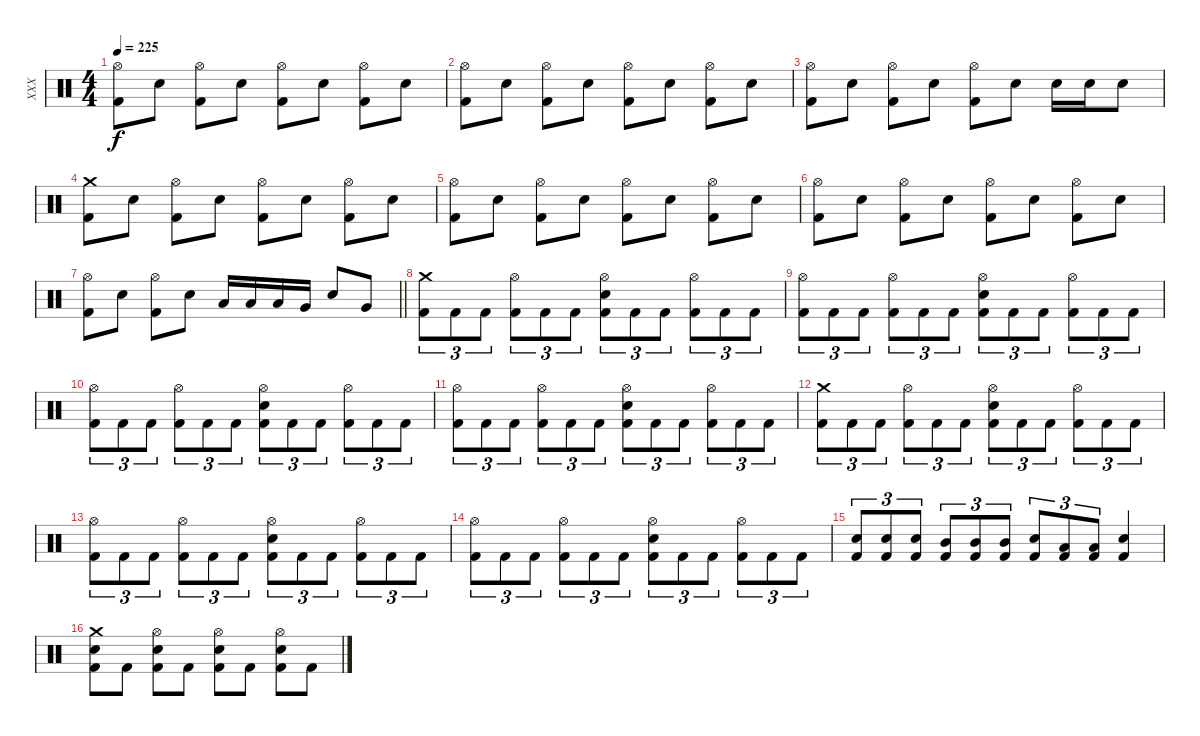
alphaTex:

\track ("XXX" "XXX") {instrument percussion}
\staff {score}
\articulation defaults
\ts (4 4)
\tempo 225
\clef neutral
\ks c
("Hi-Hat (open)" "Kick (hit) 2").8{dy f} "Electric Snare (hit)".8 ("Hi-Hat (open)" "Kick (hit) 2").8 "Electric Snare (hit)".8 ("Hi-Hat (open)" "Kick (hit) 2").8 "Electric Snare (hit)".8 ("Hi-Hat (open)" "Kick (hit) 2").8 "Electric Snare (hit)".8 |
("Hi-Hat (open)" "Kick (hit) 2").8 "Electric Snare (hit)".8 ("Hi-Hat (open)" "Kick (hit) 2").8 "Electric Snare (hit)".8 ("Hi-Hat (open)" "Kick (hit) 2").8 "Electric Snare (hit)".8 ("Hi-Hat (open)" "Kick (hit) 2").8 "Electric Snare (hit)".8 |
("Hi-Hat (open)" "Kick (hit) 2").8 "Electric Snare (hit)".8 ("Hi-Hat (open)" "Kick (hit) 2").8 "Electric Snare (hit)".8 ("Hi-Hat (open)" "Kick (hit) 2").8 "Electric Snare (hit)".8 "Electric Snare (hit)".16 "Electric Snare (hit)".16 "Electric Snare (hit)".8 |
("Crash medium (hit)" "Kick (hit) 2").8 "Electric Snare (hit)".8 ("Hi-Hat (open)" "Kick (hit) 2").8 "Electric Snare (hit)".8 ("Hi-Hat (open)" "Kick (hit) 2").8 "Electric Snare (hit)".8 ("Hi-Hat (open)" "Kick (hit) 2").8 "Electric Snare (hit)".8 |
("Hi-Hat (open)" "Kick (hit) 2").8 "Electric Snare (hit)".8 ("Hi-Hat (open)" "Kick (hit) 2").8 "Electric Snare (hit)".8 ("Hi-Hat (open)" "Kick (hit) 2").8 "Electric Snare (hit)".8 ("Hi-Hat (open)" "Kick (hit) 2").8 "Electric Snare (hit)".8 |
("Hi-Hat (open)" "Kick (hit) 2").8 "Electric Snare (hit)".8 ("Hi-Hat (open)" "Kick (hit) 2").8 "Electric Snare (hit)".8 ("Hi-Hat (open)" "Kick (hit) 2").8 "Electric Snare (hit)".8 ("Hi-Hat (open)" "Kick (hit) 2").8 "Electric Snare (hit)".8 |
\barLineRight lightlight
("Hi-Hat (open)" "Kick (hit) 2").8 "Electric Snare (hit)".8 ("Hi-Hat (open)" "Kick (hit) 2").8 "Electric Snare (hit)".8 "Low Tom (hit)".16 "Low Tom (hit)".16 "Low Tom (hit)".16 "Very Low Tom (hit)".16 "Electric Snare (hit)".8 "Very Low Tom (hit)".8 |
("Crash medium (hit)" "Kick (hit) 2").8{tu (3 2)} "Kick (hit) 2".8{tu (3 2)} "Kick (hit) 2".8{tu (3 2)} ("Hi-Hat (open)" "Kick (hit) 2").8{tu (3 2)} "Kick (hit) 2".8{tu (3 2)} "Kick (hit) 2".8{tu (3 2)} ("Hi-Hat (open)" "Electric Snare (hit)" "Kick (hit) 2").8{tu (3 2)} "Kick (hit) 2".8{tu (3 2)} "Kick (hit) 2".8{tu (3 2)} ("Hi-Hat (open)" "Kick (hit) 2").8{tu (3 2)} "Kick (hit) 2".8{tu (3 2)} "Kick (hit) 2".8{tu (3 2)} |
("Hi-Hat (open)" "Kick (hit) 2").8{tu (3 2)} "Kick (hit) 2".8{tu (3 2)} "Kick (hit) 2".8{tu (3 2)} ("Hi-Hat (open)" "Kick (hit) 2").8{tu (3 2)} "Kick (hit) 2".8{tu (3 2)} "Kick (hit) 2".8{tu (3 2)} ("Hi-Hat (open)" "Electric Snare (hit)" "Kick (hit) 2").8{tu (3 2)} "Kick (hit) 2".8{tu (3 2)} "Kick (hit) 2".8{tu (3 2)} ("Hi-Hat (open)" "Kick (hit) 2").8{tu (3 2)} "Kick (hit) 2".8{tu (3 2)} "Kick (hit) 2".8{tu (3 2)} |
("Hi-Hat (open)" "Kick (hit) 2").8{tu (3 2)} "Kick (hit) 2".8{tu (3 2)} "Kick (hit) 2".8{tu (3 2)} ("Hi-Hat (open)" "Kick (hit) 2").8{tu (3 2)} "Kick (hit) 2".8{tu (3 2)} "Kick (hit) 2".8{tu (3 2)} ("Hi-Hat (open)" "Electric Snare (hit)" "Kick (hit) 2").8{tu (3 2)} "Kick (hit) 2".8{tu (3 2)} "Kick (hit) 2".8{tu (3 2)} ("Hi-Hat (open)" "Kick (hit) 2").8{tu (3 2)} "Kick (hit) 2".8{tu (3 2)} "Kick (hit) 2".8{tu (3 2)} |
("Hi-Hat (open)" "Kick (hit) 2").8{tu (3 2)} "Kick (hit) 2".8{tu (3 2)} "Kick (hit) 2".8{tu (3 2)} ("Hi-Hat (open)" "Kick (hit) 2").8{tu (3 2)} "Kick (hit) 2".8{tu (3 2)} "Kick (hit) 2".8{tu (3 2)} ("Hi-Hat (open)" "Electric Snare (hit)" "Kick (hit) 2").8{tu (3 2)} "Kick (hit) 2".8{tu (3 2)} "Kick (hit) 2".8{tu (3 2)} ("Hi-Hat (open)" "Kick (hit) 2").8{tu (3 2)} "Kick (hit) 2".8{tu (3 2)} "Kick (hit) 2".8{tu (3 2)} |
("Crash medium (hit)" "Kick (hit) 2").8{tu (3 2)} "Kick (hit) 2".8{tu (3 2)} "Kick (hit) 2".8{tu (3 2)} ("Hi-Hat (open)" "Kick (hit) 2").8{tu (3 2)} "Kick (hit) 2".8{tu (3 2)} "Kick (hit) 2".8{tu (3 2)} ("Hi-Hat (open)" "Electric Snare (hit)" "Kick (hit) 2").8{tu (3 2)} "Kick (hit) 2".8{tu (3 2)} "Kick (hit) 2".8{tu (3 2)} ("Hi-Hat (open)" "Kick (hit) 2").8{tu (3 2)} "Kick (hit) 2".8{tu (3 2)} "Kick (hit) 2".8{tu (3 2)} |
("Hi-Hat (open)" "Kick (hit) 2").8{tu (3 2)} "Kick (hit) 2".8{tu (3 2)} "Kick (hit) 2".8{tu (3 2)} ("Hi-Hat (open)" "Kick (hit) 2").8{tu (3 2)} "Kick (hit) 2".8{tu (3 2)} "Kick (hit) 2".8{tu (3 2)} ("Hi-Hat (open)" "Electric Snare (hit)" "Kick (hit) 2").8{tu (3 2)} "Kick (hit) 2".8{tu (3 2)} "Kick (hit) 2".8{tu (3 2)} ("Hi-Hat (open)" "Kick (hit) 2").8{tu (3 2)} "Kick (hit) 2".8{tu (3 2)} "Kick (hit) 2".8{tu (3 2)} |
("Hi-Hat (open)" "Kick (hit) 2").8{tu (3 2)} "Kick (hit) 2".8{tu (3 2)} "Kick (hit) 2".8{tu (3 2)} ("Hi-Hat (open)" "Kick (hit) 2").8{tu (3 2)} "Kick (hit) 2".8{tu (3 2)} "Kick (hit) 2".8{tu (3 2)} ("Hi-Hat (open)" "Electric Snare (hit)" "Kick (hit) 2").8{tu (3 2)} "Kick (hit) 2".8{tu (3 2)} "Kick (hit) 2".8{tu (3 2)} ("Hi-Hat (open)" "Kick (hit) 2").8{tu (3 2)} "Kick (hit) 2".8{tu (3 2)} "Kick (hit) 2".8{tu (3 2)} |
("Electric Snare (hit)" "Kick (hit) 2").8{tu (3 2)} ("Electric Snare (hit)" "Kick (hit) 2").8{tu (3 2)} ("Electric Snare (hit)" "Kick (hit) 2").8{tu (3 2)} ("Mid Tom (hit)" "Kick (hit) 2").8{tu (3 2)} ("Mid Tom (hit)" "Kick (hit) 2").8{tu (3 2)} ("Mid Tom (hit)" "Kick (hit) 2").8{tu (3 2)} ("Electric Snare (hit)" "Kick (hit) 2").8{tu (3 2)} ("Low Tom (hit)" "Kick (hit) 2").8{tu (3 2)} ("Low Tom (hit)" "Kick (hit) 2").8{tu (3 2)} ("Electric Snare (hit)" "Kick (hit) 2").4 |
("Crash medium (hit)" "Electric Snare (hit)" "Kick (hit) 2").8 "Kick (hit) 2".8 ("Hi-Hat (open)" "Electric Snare (hit)" "Kick (hit) 2").8 "Kick (hit) 2".8 ("Hi-Hat (open)" "Electric Snare (hit)" "Kick (hit) 2").8 "Kick (hit) 2".8 ("Hi-Hat (open)" "Electric Snare (hit)" "Kick (hit) 2").8 "Kick (hit) 2".8
